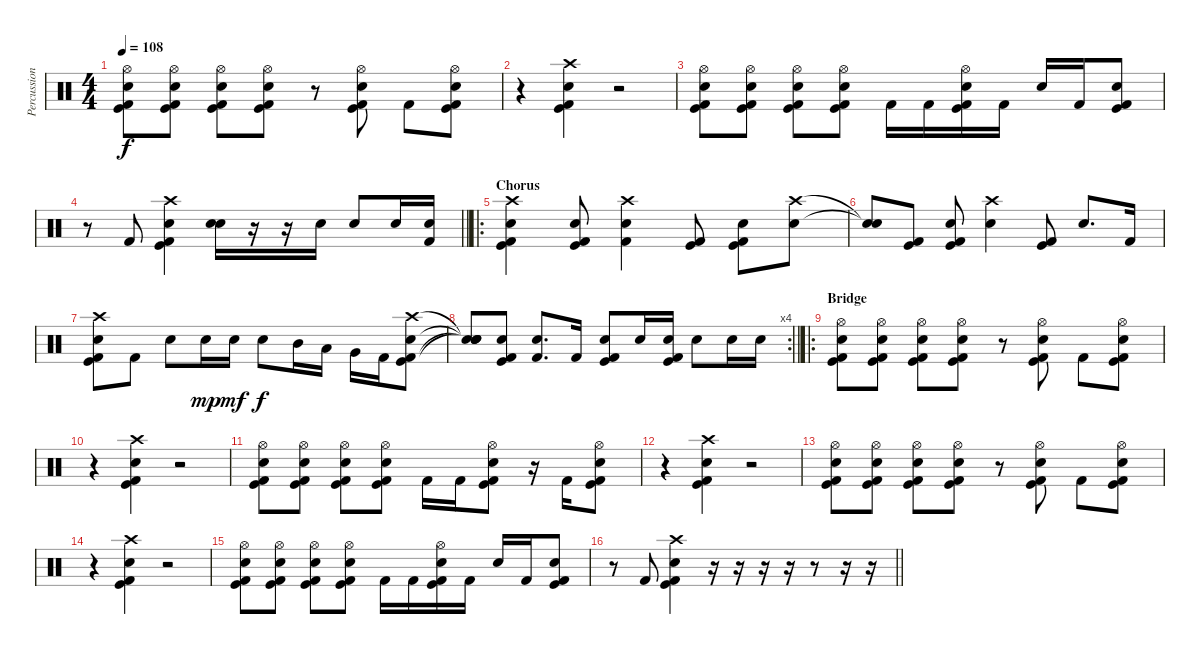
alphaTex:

\track ("Percussion" "Percussion") {instrument percussion}
\staff {score}
\articulation defaults
\ts (4 4)
\tempo 108
\clef neutral
\ks c
("Kick (hit)" "Kick (hit) 2" "Snare (hit) 2" "Hi-Hat (open)").8{dy f} ("Kick (hit)" "Kick (hit) 2" "Snare (hit) 2" "Hi-Hat (open)").8 ("Kick (hit)" "Kick (hit) 2" "Snare (hit) 2" "Hi-Hat (open)").8 ("Kick (hit)" "Kick (hit) 2" "Snare (hit) 2" "Hi-Hat (open)").8 r.8 ("Kick (hit)" "Kick (hit) 2" "Snare (hit) 2" "Hi-Hat (open)").8 "Kick (hit) 2".8 ("Kick (hit)" "Kick (hit) 2" "Snare (hit) 2" "Hi-Hat (open)").8 |
r.4 ("Kick (hit)" "Kick (hit) 2" "Snare (hit) 2" "Crash high (hit)").4 r.2 |
("Kick (hit)" "Kick (hit) 2" "Snare (hit) 2" "Hi-Hat (open)").8 ("Kick (hit)" "Kick (hit) 2" "Snare (hit) 2" "Hi-Hat (open)").8 ("Kick (hit)" "Kick (hit) 2" "Snare (hit) 2" "Hi-Hat (open)").8 ("Kick (hit)" "Kick (hit) 2" "Snare (hit) 2" "Hi-Hat (open)").8 "Kick (hit) 2".16 "Kick (hit) 2".16 ("Kick (hit)" "Kick (hit) 2" "Snare (hit) 2" "Hi-Hat (open)").16 "Kick (hit) 2".16 "Snare (hit) 2".16 "Kick (hit) 2".16 ("Kick (hit)" "Kick (hit) 2" "Snare (hit) 2").8 |
\barLineRight lightlight
r.8 "Kick (hit) 2".8 ("Kick (hit)" "Kick (hit) 2" "Snare (hit) 2" "Crash high (hit)").4 ("Electric Snare (hit)" "Snare (hit) 2").16 r.16 r.16 "Snare (hit) 2".16 "Snare (hit) 2".8 "Snare (hit) 2".16 ("Snare (hit) 2" "Kick (hit) 2").16 |
\ro
\section ("" "Chorus")
("Kick (hit)" "Snare (hit) 2" "Kick (hit) 2" "Crash high (hit)").4 ("Kick (hit) 2" "Snare (hit) 2" "Kick (hit)").8 ("Kick (hit) 2" "Snare (hit) 2" "Crash high (hit)").4 ("Kick (hit) 2" "Kick (hit)").8 ("Kick (hit) 2" "Snare (hit) 2" "Kick (hit)").8 ("Snare (hit) 2" "Crash high (hit)").8 |
("Snare (hit)"{t} "Snare (hit)"{t}).8 ("Kick (hit) 2" "Kick (hit)").8 ("Kick (hit) 2" "Snare (hit) 2" "Kick (hit)").8 ("Snare (hit) 2" "Crash high (hit)").4 ("Kick (hit) 2" "Kick (hit)").8 "Snare (hit) 2".8{d} "Kick (hit) 2".16 |
("Kick (hit) 2" "Snare (hit) 2" "Kick (hit)" "Crash high (hit)").8 "Kick (hit) 2".8 "Snare (hit) 2".8 "Snare (hit) 2".16{dy mp} "Snare (hit) 2".16{dy mf} "Snare (hit) 2".8{dy f} "Mid Tom (hit)".16 "Low Tom (hit)".16 "Very Low Tom (hit)".16 "Kick (hit) 2".16 ("Kick (hit) 2" "Snare (hit) 2" "Kick (hit)" "Crash high (hit)").8 |
\rc 4
\barLineRight lightlight
("Snare (hit)"{t} "Snare (hit)"{t} "Snare (hit)"{t} "Snare (hit)"{t}).8 ("Kick (hit) 2" "Snare (hit) 2" "Kick (hit)").8 ("Kick (hit) 2" "Snare (hit) 2").8{d} "Kick (hit) 2".16 ("Kick (hit) 2" "Snare (hit) 2" "Kick (hit)").8 "Snare (hit) 2".16 ("Kick (hit) 2" "Snare (hit) 2" "Kick (hit)").16 "Snare (hit) 2".8 "Snare (hit) 2".16 "Snare (hit) 2".16 |
\ro
\section ("" "Bridge")
("Kick (hit)" "Kick (hit) 2" "Snare (hit) 2" "Hi-Hat (open)").8 ("Kick (hit)" "Kick (hit) 2" "Snare (hit) 2" "Hi-Hat (open)").8 ("Kick (hit)" "Kick (hit) 2" "Snare (hit) 2" "Hi-Hat (open)").8 ("Kick (hit)" "Kick (hit) 2" "Snare (hit) 2" "Hi-Hat (open)").8 r.8 ("Kick (hit)" "Kick (hit) 2" "Snare (hit) 2" "Hi-Hat (open)").8 "Kick (hit) 2".8 ("Kick (hit)" "Kick (hit) 2" "Snare (hit) 2" "Hi-Hat (open)").8 |
r.4 ("Kick (hit)" "Kick (hit) 2" "Snare (hit) 2" "Crash high (hit)").4 r.2 |
("Kick (hit)" "Kick (hit) 2" "Snare (hit) 2" "Hi-Hat (open)").8 ("Kick (hit)" "Kick (hit) 2" "Snare (hit) 2" "Hi-Hat (open)").8 ("Kick (hit)" "Kick (hit) 2" "Snare (hit) 2" "Hi-Hat (open)").8 ("Kick (hit)" "Kick (hit) 2" "Snare (hit) 2" "Hi-Hat (open)").8 "Kick (hit) 2".16 "Kick (hit) 2".16 ("Kick (hit)" "Kick (hit) 2" "Snare (hit) 2" "Hi-Hat (open)").8 r.16 "Kick (hit) 2".16 ("Kick (hit)" "Kick (hit) 2" "Snare (hit) 2" "Hi-Hat (open)").8 |
r.4 ("Kick (hit)" "Kick (hit) 2" "Snare (hit) 2" "Crash high (hit)").4 r.2 |
("Kick (hit)" "Kick (hit) 2" "Snare (hit) 2" "Hi-Hat (open)").8 ("Kick (hit)" "Kick (hit) 2" "Snare (hit) 2" "Hi-Hat (open)").8 ("Kick (hit)" "Kick (hit) 2" "Snare (hit) 2" "Hi-Hat (open)").8 ("Kick (hit)" "Kick (hit) 2" "Snare (hit) 2" "Hi-Hat (open)").8 r.8 ("Kick (hit)" "Kick (hit) 2" "Snare (hit) 2" "Hi-Hat (open)").8 "Kick (hit) 2".8 ("Kick (hit)" "Kick (hit) 2" "Snare (hit) 2" "Hi-Hat (open)").8 |
r.4 ("Kick (hit)" "Kick (hit) 2" "Snare (hit) 2" "Crash high (hit)").4 r.2 |
("Kick (hit)" "Kick (hit) 2" "Snare (hit) 2" "Hi-Hat (open)").8 ("Kick (hit)" "Kick (hit) 2" "Snare (hit) 2" "Hi-Hat (open)").8 ("Kick (hit)" "Kick (hit) 2" "Snare (hit) 2" "Hi-Hat (open)").8 ("Kick (hit)" "Kick (hit) 2" "Snare (hit) 2" "Hi-Hat (open)").8 "Kick (hit) 2".16 "Kick (hit) 2".16 ("Kick (hit)" "Kick (hit) 2" "Snare (hit) 2" "Hi-Hat (open)").16 "Kick (hit) 2".16 "Snare (hit) 2".16 "Kick (hit) 2".16 ("Kick (hit)" "Kick (hit) 2" "Snare (hit) 2").8 |
\barLineRight lightlight
r.8 "Kick (hit) 2".8 ("Kick (hit)" "Kick (hit) 2" "Snare (hit) 2" "Crash high (hit)").4 r.16 r.16 r.16 r.16 r.8 r.16 r.16
